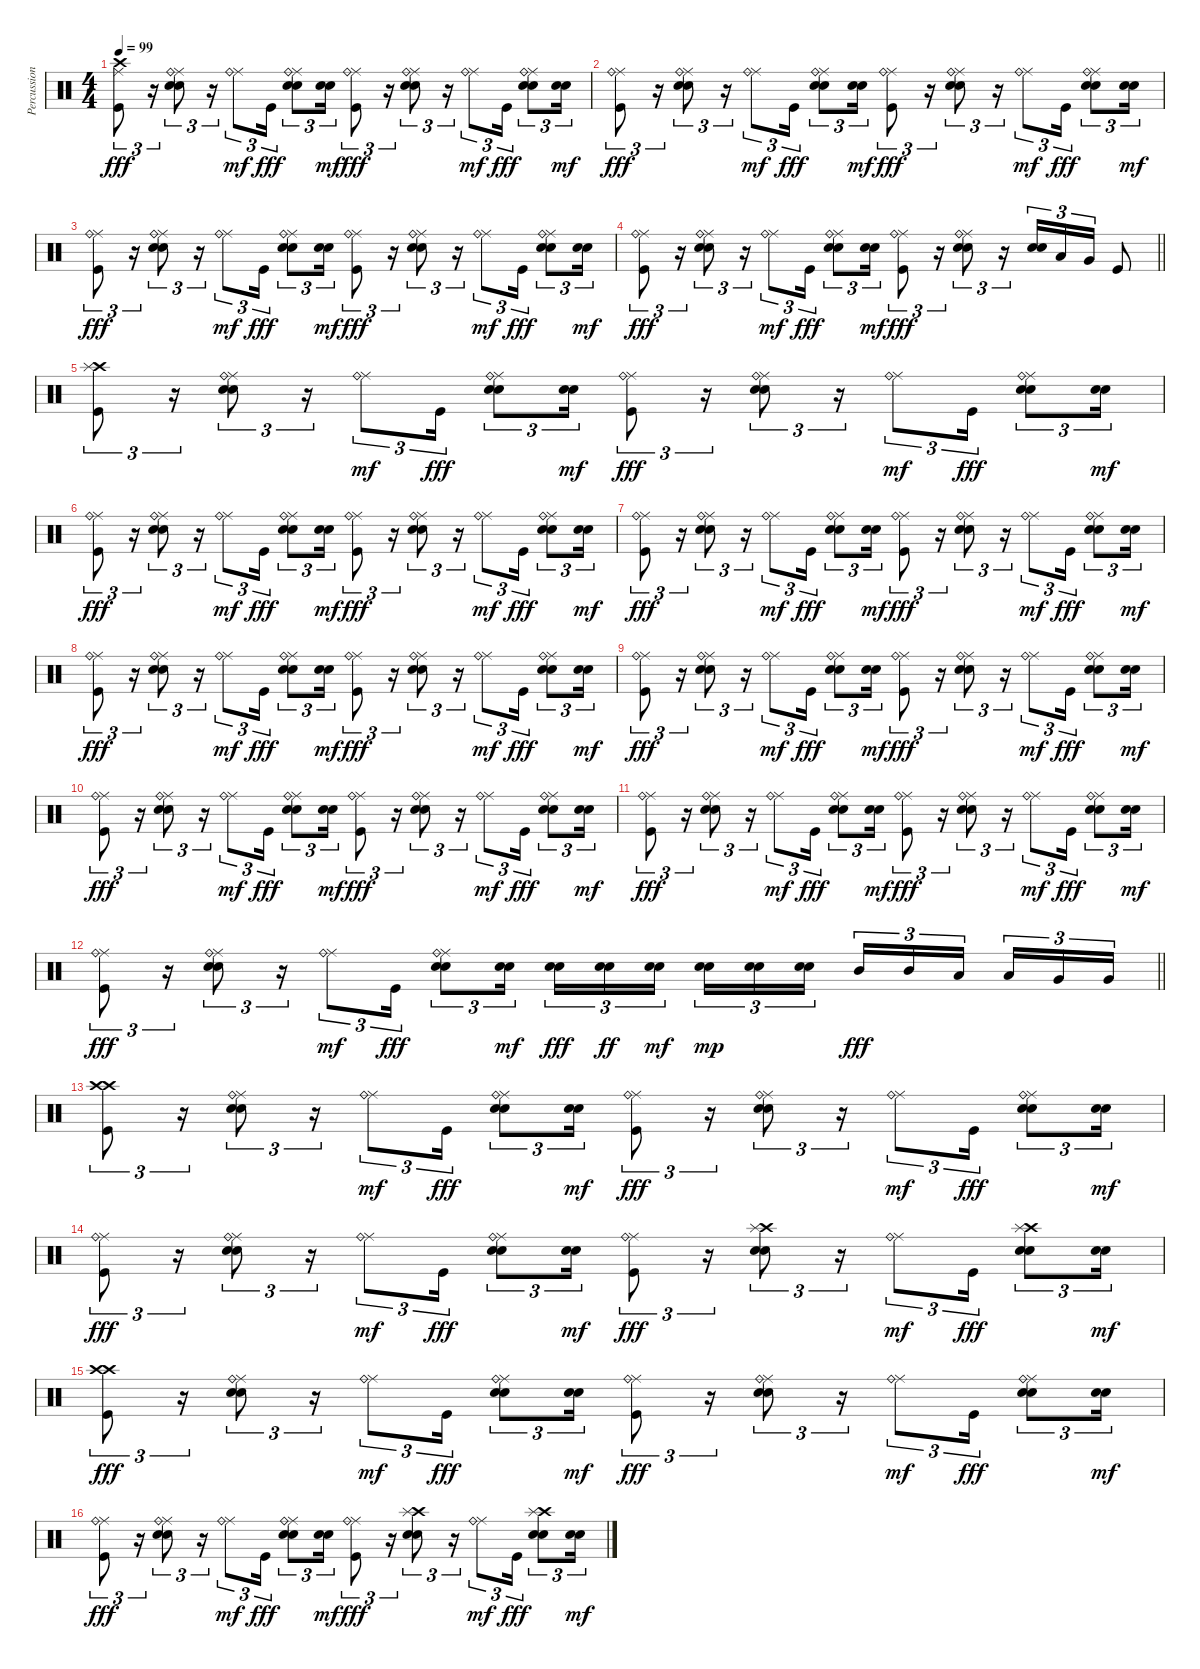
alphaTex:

\track ("Percussion" "Percussion") {instrument percussion}
\staff {score}
\articulation defaults
\ts (4 4)
\tempo 99
\clef neutral
\ks c
("Ride (middle)" "Crash high (hit)" "Kick (hit)").8{tu (3 2) dy fff} r.16{tu (3 2)} ("Ride (middle)" "Ride (bell)" "Snare (hit) 2" "Electric Snare (hit)").8{tu (3 2)} r.16{tu (3 2)} ("Ride (middle)" "Ride (bell)").8{tu (3 2) dy mf} "Kick (hit)".16{tu (3 2) dy fff} ("Ride (middle)" "Ride (bell)" "Snare (hit) 2" "Electric Snare (hit)").8{tu (3 2)} ("Snare (hit) 2" "Electric Snare (hit)").16{tu (3 2) dy mf} ("Ride (middle)" "Ride (bell)" "Kick (hit)").8{tu (3 2) dy fff} r.16{tu (3 2)} ("Ride (middle)" "Ride (bell)" "Snare (hit) 2" "Electric Snare (hit)").8{tu (3 2)} r.16{tu (3 2)} ("Ride (middle)" "Ride (bell)").8{tu (3 2) dy mf} "Kick (hit)".16{tu (3 2) dy fff} ("Ride (middle)" "Ride (bell)" "Snare (hit) 2" "Electric Snare (hit)").8{tu (3 2)} ("Snare (hit) 2" "Electric Snare (hit)").16{tu (3 2) dy mf} |
("Ride (middle)" "Ride (bell)" "Kick (hit)").8{tu (3 2) dy fff} r.16{tu (3 2)} ("Ride (middle)" "Ride (bell)" "Snare (hit) 2" "Electric Snare (hit)").8{tu (3 2)} r.16{tu (3 2)} ("Ride (middle)" "Ride (bell)").8{tu (3 2) dy mf} "Kick (hit)".16{tu (3 2) dy fff} ("Ride (middle)" "Ride (bell)" "Snare (hit) 2" "Electric Snare (hit)").8{tu (3 2)} ("Snare (hit) 2" "Electric Snare (hit)").16{tu (3 2) dy mf} ("Ride (middle)" "Ride (bell)" "Kick (hit)").8{tu (3 2) dy fff} r.16{tu (3 2)} ("Ride (middle)" "Ride (bell)" "Snare (hit) 2" "Electric Snare (hit)").8{tu (3 2)} r.16{tu (3 2)} ("Ride (middle)" "Ride (bell)").8{tu (3 2) dy mf} "Kick (hit)".16{tu (3 2) dy fff} ("Ride (middle)" "Ride (bell)" "Snare (hit) 2" "Electric Snare (hit)").8{tu (3 2)} ("Snare (hit) 2" "Electric Snare (hit)").16{tu (3 2) dy mf} |
("Ride (middle)" "Ride (bell)" "Kick (hit)").8{tu (3 2) dy fff} r.16{tu (3 2)} ("Ride (middle)" "Ride (bell)" "Snare (hit) 2" "Electric Snare (hit)").8{tu (3 2)} r.16{tu (3 2)} ("Ride (middle)" "Ride (bell)").8{tu (3 2) dy mf} "Kick (hit)".16{tu (3 2) dy fff} ("Ride (middle)" "Ride (bell)" "Snare (hit) 2" "Electric Snare (hit)").8{tu (3 2)} ("Snare (hit) 2" "Electric Snare (hit)").16{tu (3 2) dy mf} ("Ride (middle)" "Ride (bell)" "Kick (hit)").8{tu (3 2) dy fff} r.16{tu (3 2)} ("Ride (middle)" "Ride (bell)" "Snare (hit) 2" "Electric Snare (hit)").8{tu (3 2)} r.16{tu (3 2)} ("Ride (middle)" "Ride (bell)").8{tu (3 2) dy mf} "Kick (hit)".16{tu (3 2) dy fff} ("Ride (middle)" "Ride (bell)" "Snare (hit) 2" "Electric Snare (hit)").8{tu (3 2)} ("Snare (hit) 2" "Electric Snare (hit)").16{tu (3 2) dy mf} |
\barLineRight lightlight
("Ride (middle)" "Ride (bell)" "Kick (hit)").8{tu (3 2) dy fff} r.16{tu (3 2)} ("Ride (middle)" "Ride (bell)" "Snare (hit) 2" "Electric Snare (hit)").8{tu (3 2)} r.16{tu (3 2)} ("Ride (middle)" "Ride (bell)").8{tu (3 2) dy mf} "Kick (hit)".16{tu (3 2) dy fff} ("Ride (middle)" "Ride (bell)" "Snare (hit) 2" "Electric Snare (hit)").8{tu (3 2)} ("Snare (hit) 2" "Electric Snare (hit)").16{tu (3 2) dy mf} ("Ride (middle)" "Ride (bell)" "Kick (hit)").8{tu (3 2) dy fff} r.16{tu (3 2)} ("Ride (middle)" "Ride (bell)" "Snare (hit) 2" "Electric Snare (hit)").8{tu (3 2)} r.16{tu (3 2)} ("Snare (hit) 2" "Electric Snare (hit)").16{tu (3 2)} "Low Tom (hit)".16{tu (3 2)} "Very Low Tom (hit)".16{tu (3 2)} "Kick (hit)".8 |
("Crash high (hit)" "Splash (hit)" "Kick (hit)").8{tu (3 2)} r.16{tu (3 2)} ("Ride (middle)" "Ride (bell)" "Snare (hit) 2" "Electric Snare (hit)").8{tu (3 2)} r.16{tu (3 2)} ("Ride (middle)" "Ride (bell)").8{tu (3 2) dy mf} "Kick (hit)".16{tu (3 2) dy fff} ("Ride (middle)" "Ride (bell)" "Snare (hit) 2" "Electric Snare (hit)").8{tu (3 2)} ("Snare (hit) 2" "Electric Snare (hit)").16{tu (3 2) dy mf} ("Ride (middle)" "Ride (bell)" "Kick (hit)").8{tu (3 2) dy fff} r.16{tu (3 2)} ("Ride (middle)" "Ride (bell)" "Snare (hit) 2" "Electric Snare (hit)").8{tu (3 2)} r.16{tu (3 2)} ("Ride (middle)" "Ride (bell)").8{tu (3 2) dy mf} "Kick (hit)".16{tu (3 2) dy fff} ("Ride (middle)" "Ride (bell)" "Snare (hit) 2" "Electric Snare (hit)").8{tu (3 2)} ("Snare (hit) 2" "Electric Snare (hit)").16{tu (3 2) dy mf} |
("Ride (middle)" "Ride (bell)" "Kick (hit)").8{tu (3 2) dy fff} r.16{tu (3 2)} ("Ride (middle)" "Ride (bell)" "Snare (hit) 2" "Electric Snare (hit)").8{tu (3 2)} r.16{tu (3 2)} ("Ride (middle)" "Ride (bell)").8{tu (3 2) dy mf} "Kick (hit)".16{tu (3 2) dy fff} ("Ride (middle)" "Ride (bell)" "Snare (hit) 2" "Electric Snare (hit)").8{tu (3 2)} ("Snare (hit) 2" "Electric Snare (hit)").16{tu (3 2) dy mf} ("Ride (middle)" "Ride (bell)" "Kick (hit)").8{tu (3 2) dy fff} r.16{tu (3 2)} ("Ride (middle)" "Ride (bell)" "Snare (hit) 2" "Electric Snare (hit)").8{tu (3 2)} r.16{tu (3 2)} ("Ride (middle)" "Ride (bell)").8{tu (3 2) dy mf} "Kick (hit)".16{tu (3 2) dy fff} ("Ride (middle)" "Ride (bell)" "Snare (hit) 2" "Electric Snare (hit)").8{tu (3 2)} ("Snare (hit) 2" "Electric Snare (hit)").16{tu (3 2) dy mf} |
("Ride (middle)" "Ride (bell)" "Kick (hit)").8{tu (3 2) dy fff} r.16{tu (3 2)} ("Ride (middle)" "Ride (bell)" "Snare (hit) 2" "Electric Snare (hit)").8{tu (3 2)} r.16{tu (3 2)} ("Ride (middle)" "Ride (bell)").8{tu (3 2) dy mf} "Kick (hit)".16{tu (3 2) dy fff} ("Ride (middle)" "Ride (bell)" "Snare (hit) 2" "Electric Snare (hit)").8{tu (3 2)} ("Snare (hit) 2" "Electric Snare (hit)").16{tu (3 2) dy mf} ("Ride (middle)" "Ride (bell)" "Kick (hit)").8{tu (3 2) dy fff} r.16{tu (3 2)} ("Ride (middle)" "Ride (bell)" "Snare (hit) 2" "Electric Snare (hit)").8{tu (3 2)} r.16{tu (3 2)} ("Ride (middle)" "Ride (bell)").8{tu (3 2) dy mf} "Kick (hit)".16{tu (3 2) dy fff} ("Ride (middle)" "Ride (bell)" "Snare (hit) 2" "Electric Snare (hit)").8{tu (3 2)} ("Snare (hit) 2" "Electric Snare (hit)").16{tu (3 2) dy mf} |
("Ride (middle)" "Ride (bell)" "Kick (hit)").8{tu (3 2) dy fff} r.16{tu (3 2)} ("Ride (middle)" "Ride (bell)" "Snare (hit) 2" "Electric Snare (hit)").8{tu (3 2)} r.16{tu (3 2)} ("Ride (middle)" "Ride (bell)").8{tu (3 2) dy mf} "Kick (hit)".16{tu (3 2) dy fff} ("Ride (middle)" "Ride (bell)" "Snare (hit) 2" "Electric Snare (hit)").8{tu (3 2)} ("Snare (hit) 2" "Electric Snare (hit)").16{tu (3 2) dy mf} ("Ride (middle)" "Ride (bell)" "Kick (hit)").8{tu (3 2) dy fff} r.16{tu (3 2)} ("Ride (middle)" "Ride (bell)" "Snare (hit) 2" "Electric Snare (hit)").8{tu (3 2)} r.16{tu (3 2)} ("Ride (middle)" "Ride (bell)").8{tu (3 2) dy mf} "Kick (hit)".16{tu (3 2) dy fff} ("Ride (middle)" "Ride (bell)" "Snare (hit) 2" "Electric Snare (hit)").8{tu (3 2)} ("Snare (hit) 2" "Electric Snare (hit)").16{tu (3 2) dy mf} |
("Ride (middle)" "Ride (bell)" "Kick (hit)").8{tu (3 2) dy fff} r.16{tu (3 2)} ("Ride (middle)" "Ride (bell)" "Snare (hit) 2" "Electric Snare (hit)").8{tu (3 2)} r.16{tu (3 2)} ("Ride (middle)" "Ride (bell)").8{tu (3 2) dy mf} "Kick (hit)".16{tu (3 2) dy fff} ("Ride (middle)" "Ride (bell)" "Snare (hit) 2" "Electric Snare (hit)").8{tu (3 2)} ("Snare (hit) 2" "Electric Snare (hit)").16{tu (3 2) dy mf} ("Ride (middle)" "Ride (bell)" "Kick (hit)").8{tu (3 2) dy fff} r.16{tu (3 2)} ("Ride (middle)" "Ride (bell)" "Snare (hit) 2" "Electric Snare (hit)").8{tu (3 2)} r.16{tu (3 2)} ("Ride (middle)" "Ride (bell)").8{tu (3 2) dy mf} "Kick (hit)".16{tu (3 2) dy fff} ("Ride (middle)" "Ride (bell)" "Snare (hit) 2" "Electric Snare (hit)").8{tu (3 2)} ("Snare (hit) 2" "Electric Snare (hit)").16{tu (3 2) dy mf} |
("Ride (middle)" "Ride (bell)" "Kick (hit)").8{tu (3 2) dy fff} r.16{tu (3 2)} ("Ride (middle)" "Ride (bell)" "Snare (hit) 2" "Electric Snare (hit)").8{tu (3 2)} r.16{tu (3 2)} ("Ride (middle)" "Ride (bell)").8{tu (3 2) dy mf} "Kick (hit)".16{tu (3 2) dy fff} ("Ride (middle)" "Ride (bell)" "Snare (hit) 2" "Electric Snare (hit)").8{tu (3 2)} ("Snare (hit) 2" "Electric Snare (hit)").16{tu (3 2) dy mf} ("Ride (middle)" "Ride (bell)" "Kick (hit)").8{tu (3 2) dy fff} r.16{tu (3 2)} ("Ride (middle)" "Ride (bell)" "Snare (hit) 2" "Electric Snare (hit)").8{tu (3 2)} r.16{tu (3 2)} ("Ride (middle)" "Ride (bell)").8{tu (3 2) dy mf} "Kick (hit)".16{tu (3 2) dy fff} ("Ride (middle)" "Ride (bell)" "Snare (hit) 2" "Electric Snare (hit)").8{tu (3 2)} ("Snare (hit) 2" "Electric Snare (hit)").16{tu (3 2) dy mf} |
("Ride (middle)" "Ride (bell)" "Kick (hit)").8{tu (3 2) dy fff} r.16{tu (3 2)} ("Ride (middle)" "Ride (bell)" "Snare (hit) 2" "Electric Snare (hit)").8{tu (3 2)} r.16{tu (3 2)} ("Ride (middle)" "Ride (bell)").8{tu (3 2) dy mf} "Kick (hit)".16{tu (3 2) dy fff} ("Ride (middle)" "Ride (bell)" "Snare (hit) 2" "Electric Snare (hit)").8{tu (3 2)} ("Snare (hit) 2" "Electric Snare (hit)").16{tu (3 2) dy mf} ("Ride (middle)" "Ride (bell)" "Kick (hit)").8{tu (3 2) dy fff} r.16{tu (3 2)} ("Ride (middle)" "Ride (bell)" "Snare (hit) 2" "Electric Snare (hit)").8{tu (3 2)} r.16{tu (3 2)} ("Ride (middle)" "Ride (bell)").8{tu (3 2) dy mf} "Kick (hit)".16{tu (3 2) dy fff} ("Ride (middle)" "Ride (bell)" "Snare (hit) 2" "Electric Snare (hit)").8{tu (3 2)} ("Snare (hit) 2" "Electric Snare (hit)").16{tu (3 2) dy mf} |
\barLineRight lightlight
("Ride (middle)" "Ride (bell)" "Kick (hit)").8{tu (3 2) dy fff} r.16{tu (3 2)} ("Ride (middle)" "Ride (bell)" "Snare (hit) 2" "Electric Snare (hit)").8{tu (3 2)} r.16{tu (3 2)} ("Ride (middle)" "Ride (bell)").8{tu (3 2) dy mf} "Kick (hit)".16{tu (3 2) dy fff} ("Ride (middle)" "Ride (bell)" "Snare (hit) 2" "Electric Snare (hit)").8{tu (3 2)} ("Snare (hit) 2" "Electric Snare (hit)").16{tu (3 2) dy mf} ("Snare (hit) 2" "Electric Snare (hit)").16{tu (3 2) dy fff} ("Snare (hit) 2" "Electric Snare (hit)").16{tu (3 2) dy ff} ("Snare (hit) 2" "Electric Snare (hit)").16{tu (3 2) dy mf beam splitsecondary} ("Snare (hit) 2" "Electric Snare (hit)").16{tu (3 2) dy mp} ("Snare (hit) 2" "Electric Snare (hit)").16{tu (3 2)} ("Snare (hit) 2" "Electric Snare (hit)").16{tu (3 2)} "Mid Tom (hit)".16{tu (3 2) dy fff} "Mid Tom (hit)".16{tu (3 2)} "Low Tom (hit)".16{tu (3 2) beam splitsecondary} "Low Tom (hit)".16{tu (3 2)} "Very Low Tom (hit)".16{tu (3 2)} "Very Low Tom (hit)".16{tu (3 2)} |
("Crash high (hit)" "Crash high (hit)" "Kick (hit)").8{tu (3 2)} r.16{tu (3 2)} ("Ride (middle)" "Ride (bell)" "Snare (hit) 2" "Electric Snare (hit)").8{tu (3 2)} r.16{tu (3 2)} ("Ride (middle)" "Ride (bell)").8{tu (3 2) dy mf} "Kick (hit)".16{tu (3 2) dy fff} ("Ride (middle)" "Ride (bell)" "Snare (hit) 2" "Electric Snare (hit)").8{tu (3 2)} ("Snare (hit) 2" "Electric Snare (hit)").16{tu (3 2) dy mf} ("Ride (middle)" "Ride (bell)" "Kick (hit)").8{tu (3 2) dy fff} r.16{tu (3 2)} ("Ride (middle)" "Ride (bell)" "Snare (hit) 2" "Electric Snare (hit)").8{tu (3 2)} r.16{tu (3 2)} ("Ride (middle)" "Ride (bell)").8{tu (3 2) dy mf} "Kick (hit)".16{tu (3 2) dy fff} ("Ride (middle)" "Ride (bell)" "Snare (hit) 2" "Electric Snare (hit)").8{tu (3 2)} ("Snare (hit) 2" "Electric Snare (hit)").16{tu (3 2) dy mf} |
("Ride (middle)" "Ride (bell)" "Kick (hit)").8{tu (3 2) dy fff} r.16{tu (3 2)} ("Ride (middle)" "Ride (bell)" "Snare (hit) 2" "Electric Snare (hit)").8{tu (3 2)} r.16{tu (3 2)} ("Ride (middle)" "Ride (bell)").8{tu (3 2) dy mf} "Kick (hit)".16{tu (3 2) dy fff} ("Ride (middle)" "Ride (bell)" "Snare (hit) 2" "Electric Snare (hit)").8{tu (3 2)} ("Snare (hit) 2" "Electric Snare (hit)").16{tu (3 2) dy mf} ("Ride (middle)" "Ride (bell)" "Kick (hit)").8{tu (3 2) dy fff} r.16{tu (3 2)} ("Crash high (hit)" "Splash (hit)" "Snare (hit) 2" "Electric Snare (hit)").8{tu (3 2)} r.16{tu (3 2)} ("Ride (middle)" "Ride (bell)").8{tu (3 2) dy mf} "Kick (hit)".16{tu (3 2) dy fff} ("Crash high (hit)" "Splash (hit)" "Snare (hit) 2" "Electric Snare (hit)").8{tu (3 2)} ("Snare (hit) 2" "Electric Snare (hit)").16{tu (3 2) dy mf} |
("Crash high (hit)" "Crash high (hit)" "Kick (hit)").8{tu (3 2) dy fff} r.16{tu (3 2)} ("Ride (middle)" "Ride (bell)" "Snare (hit) 2" "Electric Snare (hit)").8{tu (3 2)} r.16{tu (3 2)} ("Ride (middle)" "Ride (bell)").8{tu (3 2) dy mf} "Kick (hit)".16{tu (3 2) dy fff} ("Ride (middle)" "Ride (bell)" "Snare (hit) 2" "Electric Snare (hit)").8{tu (3 2)} ("Snare (hit) 2" "Electric Snare (hit)").16{tu (3 2) dy mf} ("Ride (middle)" "Ride (bell)" "Kick (hit)").8{tu (3 2) dy fff} r.16{tu (3 2)} ("Ride (middle)" "Ride (bell)" "Snare (hit) 2" "Electric Snare (hit)").8{tu (3 2)} r.16{tu (3 2)} ("Ride (middle)" "Ride (bell)").8{tu (3 2) dy mf} "Kick (hit)".16{tu (3 2) dy fff} ("Ride (middle)" "Ride (bell)" "Snare (hit) 2" "Electric Snare (hit)").8{tu (3 2)} ("Snare (hit) 2" "Electric Snare (hit)").16{tu (3 2) dy mf} |
("Ride (middle)" "Ride (bell)" "Kick (hit)").8{tu (3 2) dy fff} r.16{tu (3 2)} ("Ride (middle)" "Ride (bell)" "Snare (hit) 2" "Electric Snare (hit)").8{tu (3 2)} r.16{tu (3 2)} ("Ride (middle)" "Ride (bell)").8{tu (3 2) dy mf} "Kick (hit)".16{tu (3 2) dy fff} ("Ride (middle)" "Ride (bell)" "Snare (hit) 2" "Electric Snare (hit)").8{tu (3 2)} ("Snare (hit) 2" "Electric Snare (hit)").16{tu (3 2) dy mf} ("Ride (middle)" "Ride (bell)" "Kick (hit)").8{tu (3 2) dy fff} r.16{tu (3 2)} ("Crash high (hit)" "Splash (hit)" "Snare (hit) 2" "Electric Snare (hit)").8{tu (3 2)} r.16{tu (3 2)} ("Ride (middle)" "Ride (bell)").8{tu (3 2) dy mf} "Kick (hit)".16{tu (3 2) dy fff} ("Crash high (hit)" "Splash (hit)" "Snare (hit) 2" "Electric Snare (hit)").8{tu (3 2)} ("Snare (hit) 2" "Electric Snare (hit)").16{tu (3 2) dy mf}
